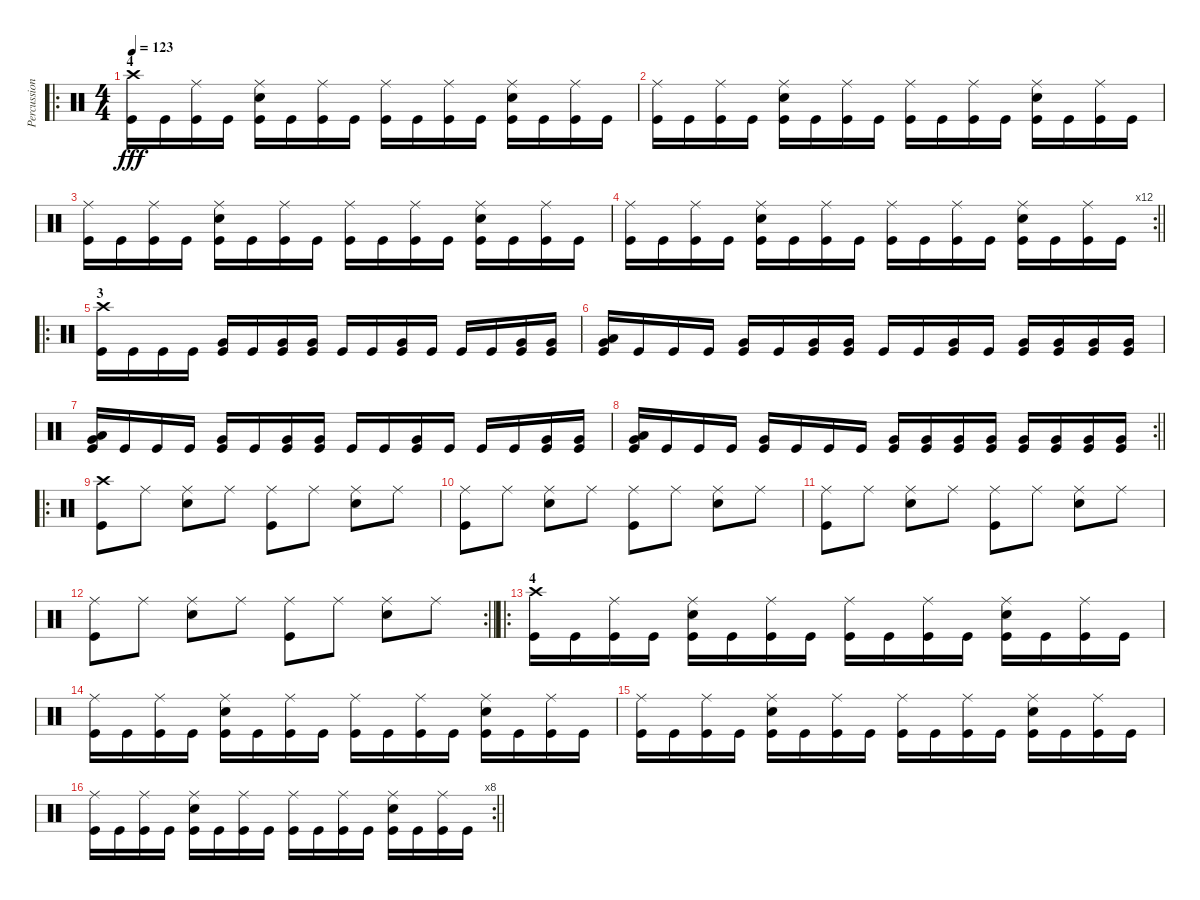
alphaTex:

\track ("Percussion" "Percussion") {instrument percussion}
\staff {score}
\articulation defaults
\ro
\ts (4 4)
\section ("" "4")
\tempo 123
\clef neutral
\ks c
("Crash high (hit)" "Kick (hit)").16{dy fff} "Kick (hit)".16 ("Ride (middle)" "Kick (hit)").16 "Kick (hit)".16 ("Ride (middle)" "Snare (hit) 2" "Kick (hit)").16 "Kick (hit)".16 ("Ride (middle)" "Kick (hit)").16 "Kick (hit)".16 ("Ride (middle)" "Kick (hit)").16 "Kick (hit)".16 ("Ride (middle)" "Kick (hit)").16 "Kick (hit)".16 ("Ride (middle)" "Snare (hit) 2" "Kick (hit)").16 "Kick (hit)".16 ("Ride (middle)" "Kick (hit)").16 "Kick (hit)".16 |
("Ride (middle)" "Kick (hit)").16 "Kick (hit)".16 ("Ride (middle)" "Kick (hit)").16 "Kick (hit)".16 ("Ride (middle)" "Snare (hit) 2" "Kick (hit)").16 "Kick (hit)".16 ("Ride (middle)" "Kick (hit)").16 "Kick (hit)".16 ("Ride (middle)" "Kick (hit)").16 "Kick (hit)".16 ("Ride (middle)" "Kick (hit)").16 "Kick (hit)".16 ("Ride (middle)" "Snare (hit) 2" "Kick (hit)").16 "Kick (hit)".16 ("Ride (middle)" "Kick (hit)").16 "Kick (hit)".16 |
("Ride (middle)" "Kick (hit)").16 "Kick (hit)".16 ("Ride (middle)" "Kick (hit)").16 "Kick (hit)".16 ("Ride (middle)" "Snare (hit) 2" "Kick (hit)").16 "Kick (hit)".16 ("Ride (middle)" "Kick (hit)").16 "Kick (hit)".16 ("Ride (middle)" "Kick (hit)").16 "Kick (hit)".16 ("Ride (middle)" "Kick (hit)").16 "Kick (hit)".16 ("Ride (middle)" "Snare (hit) 2" "Kick (hit)").16 "Kick (hit)".16 ("Ride (middle)" "Kick (hit)").16 "Kick (hit)".16 |
\rc 12
\barLineRight lightlight
("Ride (middle)" "Kick (hit)").16 "Kick (hit)".16 ("Ride (middle)" "Kick (hit)").16 "Kick (hit)".16 ("Ride (middle)" "Snare (hit) 2" "Kick (hit)").16 "Kick (hit)".16 ("Ride (middle)" "Kick (hit)").16 "Kick (hit)".16 ("Ride (middle)" "Kick (hit)").16 "Kick (hit)".16 ("Ride (middle)" "Kick (hit)").16 "Kick (hit)".16 ("Ride (middle)" "Snare (hit) 2" "Kick (hit)").16 "Kick (hit)".16 ("Ride (middle)" "Kick (hit)").16 "Kick (hit)".16 |
\ro
\section ("" "3")
("Crash high (hit)" "Kick (hit)").16 "Kick (hit)".16 "Kick (hit)".16 "Kick (hit)".16 ("Very Low Tom (hit)" "Kick (hit)").16 "Kick (hit)".16 ("Very Low Tom (hit)" "Kick (hit)").16 ("Very Low Tom (hit)" "Kick (hit)").16 "Kick (hit)".16 "Kick (hit)".16 ("Very Low Tom (hit)" "Kick (hit)").16 "Kick (hit)".16 "Kick (hit)".16 "Kick (hit)".16 ("Very Low Tom (hit)" "Kick (hit)").16 ("Very Low Tom (hit)" "Kick (hit)").16 |
("Very Low Tom (hit)" "Low Tom (hit)" "Kick (hit)").16{bu 240} "Kick (hit)".16 "Kick (hit)".16 "Kick (hit)".16 ("Very Low Tom (hit)" "Kick (hit)").16 "Kick (hit)".16 ("Very Low Tom (hit)" "Kick (hit)").16 ("Very Low Tom (hit)" "Kick (hit)").16 "Kick (hit)".16 "Kick (hit)".16 ("Very Low Tom (hit)" "Kick (hit)").16 "Kick (hit)".16 ("Very Low Tom (hit)" "Kick (hit)").16 ("Very Low Tom (hit)" "Kick (hit)").16 ("Very Low Tom (hit)" "Kick (hit)").16 ("Very Low Tom (hit)" "Kick (hit)").16 |
("Very Low Tom (hit)" "Low Tom (hit)" "Kick (hit)").16{bu 240} "Kick (hit)".16 "Kick (hit)".16 "Kick (hit)".16 ("Very Low Tom (hit)" "Kick (hit)").16 "Kick (hit)".16 ("Very Low Tom (hit)" "Kick (hit)").16 ("Very Low Tom (hit)" "Kick (hit)").16 "Kick (hit)".16 "Kick (hit)".16 ("Very Low Tom (hit)" "Kick (hit)").16 "Kick (hit)".16 "Kick (hit)".16 "Kick (hit)".16 ("Very Low Tom (hit)" "Kick (hit)").16 ("Very Low Tom (hit)" "Kick (hit)").16 |
\rc 2
\barLineRight lightlight
("Very Low Tom (hit)" "Low Tom (hit)" "Kick (hit)").16{bu 240} "Kick (hit)".16 "Kick (hit)".16 "Kick (hit)".16 ("Very Low Tom (hit)" "Kick (hit)").16 "Kick (hit)".16 "Kick (hit)".16 "Kick (hit)".16 ("Very Low Tom (hit)" "Kick (hit)").16 ("Very Low Tom (hit)" "Kick (hit)").16 ("Very Low Tom (hit)" "Kick (hit)").16 ("Very Low Tom (hit)" "Kick (hit)").16 ("Very Low Tom (hit)" "Kick (hit)").16 ("Very Low Tom (hit)" "Kick (hit)").16 ("Very Low Tom (hit)" "Kick (hit)").16 ("Very Low Tom (hit)" "Kick (hit)").16 |
\ro
\section ("" "")
("Crash high (hit)" "Kick (hit)").8 "Ride (middle)".8 ("Ride (middle)" "Snare (hit) 2").8 "Ride (middle)".8 ("Ride (middle)" "Kick (hit)").8 "Ride (middle)".8 ("Ride (middle)" "Snare (hit) 2").8 "Ride (middle)".8 |
("Ride (middle)" "Kick (hit)").8 "Ride (middle)".8 ("Ride (middle)" "Snare (hit) 2").8 "Ride (middle)".8 ("Ride (middle)" "Kick (hit)").8 "Ride (middle)".8 ("Ride (middle)" "Snare (hit) 2").8 "Ride (middle)".8 |
("Ride (middle)" "Kick (hit)").8 "Ride (middle)".8 ("Ride (middle)" "Snare (hit) 2").8 "Ride (middle)".8 ("Ride (middle)" "Kick (hit)").8 "Ride (middle)".8 ("Ride (middle)" "Snare (hit) 2").8 "Ride (middle)".8 |
\rc 2
\barLineRight lightlight
("Ride (middle)" "Kick (hit)").8 "Ride (middle)".8 ("Ride (middle)" "Snare (hit) 2").8 "Ride (middle)".8 ("Ride (middle)" "Kick (hit)").8 "Ride (middle)".8 ("Ride (middle)" "Snare (hit) 2").8 "Ride (middle)".8 |
\ro
\section ("" "4")
("Crash high (hit)" "Kick (hit)").16 "Kick (hit)".16 ("Ride (middle)" "Kick (hit)").16 "Kick (hit)".16 ("Ride (middle)" "Snare (hit) 2" "Kick (hit)").16 "Kick (hit)".16 ("Ride (middle)" "Kick (hit)").16 "Kick (hit)".16 ("Ride (middle)" "Kick (hit)").16 "Kick (hit)".16 ("Ride (middle)" "Kick (hit)").16 "Kick (hit)".16 ("Ride (middle)" "Snare (hit) 2" "Kick (hit)").16 "Kick (hit)".16 ("Ride (middle)" "Kick (hit)").16 "Kick (hit)".16 |
("Ride (middle)" "Kick (hit)").16 "Kick (hit)".16 ("Ride (middle)" "Kick (hit)").16 "Kick (hit)".16 ("Ride (middle)" "Snare (hit) 2" "Kick (hit)").16 "Kick (hit)".16 ("Ride (middle)" "Kick (hit)").16 "Kick (hit)".16 ("Ride (middle)" "Kick (hit)").16 "Kick (hit)".16 ("Ride (middle)" "Kick (hit)").16 "Kick (hit)".16 ("Ride (middle)" "Snare (hit) 2" "Kick (hit)").16 "Kick (hit)".16 ("Ride (middle)" "Kick (hit)").16 "Kick (hit)".16 |
("Ride (middle)" "Kick (hit)").16 "Kick (hit)".16 ("Ride (middle)" "Kick (hit)").16 "Kick (hit)".16 ("Ride (middle)" "Snare (hit) 2" "Kick (hit)").16 "Kick (hit)".16 ("Ride (middle)" "Kick (hit)").16 "Kick (hit)".16 ("Ride (middle)" "Kick (hit)").16 "Kick (hit)".16 ("Ride (middle)" "Kick (hit)").16 "Kick (hit)".16 ("Ride (middle)" "Snare (hit) 2" "Kick (hit)").16 "Kick (hit)".16 ("Ride (middle)" "Kick (hit)").16 "Kick (hit)".16 |
\rc 8
\barLineRight lightlight
("Ride (middle)" "Kick (hit)").16 "Kick (hit)".16 ("Ride (middle)" "Kick (hit)").16 "Kick (hit)".16 ("Ride (middle)" "Snare (hit) 2" "Kick (hit)").16 "Kick (hit)".16 ("Ride (middle)" "Kick (hit)").16 "Kick (hit)".16 ("Ride (middle)" "Kick (hit)").16 "Kick (hit)".16 ("Ride (middle)" "Kick (hit)").16 "Kick (hit)".16 ("Ride (middle)" "Snare (hit) 2" "Kick (hit)").16 "Kick (hit)".16 ("Ride (middle)" "Kick (hit)").16 "Kick (hit)".16
